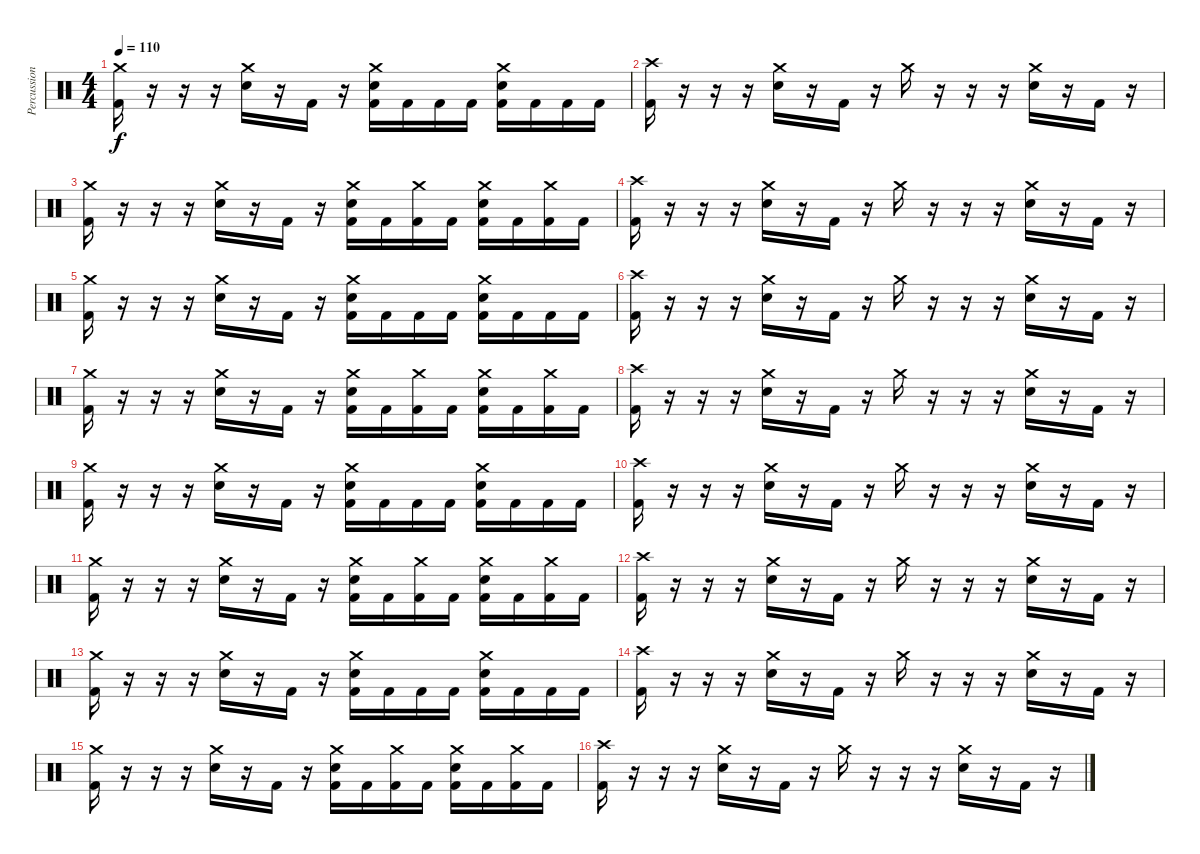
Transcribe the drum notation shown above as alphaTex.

\track ("Percussion" "Percussion") {instrument percussion}
\staff {score}
\articulation defaults
\ts (4 4)
\tempo 110
\clef neutral
\ks c
("Crash medium (hit)" "Kick (hit) 2").16{dy f} r.16 r.16 r.16 ("Crash medium (hit)" "Electric Snare (hit)").16 r.16 "Kick (hit) 2".16 r.16 ("Crash medium (hit)" "Electric Snare (hit)" "Kick (hit) 2").16 "Kick (hit) 2".16 "Kick (hit) 2".16 "Kick (hit) 2".16 ("Crash medium (hit)" "Electric Snare (hit)" "Kick (hit) 2").16 "Kick (hit) 2".16 "Kick (hit) 2".16 "Kick (hit) 2".16 |
("Crash high (hit)" "Kick (hit) 2").16 r.16 r.16 r.16 ("Crash medium (hit)" "Electric Snare (hit)").16 r.16 "Kick (hit) 2".16 r.16 "Crash medium (hit)".16 r.16 r.16 r.16 ("Crash medium (hit)" "Electric Snare (hit)").16 r.16 "Kick (hit) 2".16 r.16 |
("Crash medium (hit)" "Kick (hit) 2").16 r.16 r.16 r.16 ("Crash medium (hit)" "Electric Snare (hit)").16 r.16 "Kick (hit) 2".16 r.16 ("Crash medium (hit)" "Electric Snare (hit)" "Kick (hit) 2").16 "Kick (hit) 2".16 ("Crash medium (hit)" "Kick (hit) 2").16 "Kick (hit) 2".16 ("Crash medium (hit)" "Electric Snare (hit)" "Kick (hit) 2").16 "Kick (hit) 2".16 ("Crash medium (hit)" "Kick (hit) 2").16 "Kick (hit) 2".16 |
("Crash high (hit)" "Kick (hit) 2").16 r.16 r.16 r.16 ("Crash medium (hit)" "Electric Snare (hit)").16 r.16 "Kick (hit) 2".16 r.16 "Crash medium (hit)".16 r.16 r.16 r.16 ("Crash medium (hit)" "Electric Snare (hit)").16 r.16 "Kick (hit) 2".16 r.16 |
("Crash medium (hit)" "Kick (hit) 2").16 r.16 r.16 r.16 ("Crash medium (hit)" "Electric Snare (hit)").16 r.16 "Kick (hit) 2".16 r.16 ("Crash medium (hit)" "Electric Snare (hit)" "Kick (hit) 2").16 "Kick (hit) 2".16 "Kick (hit) 2".16 "Kick (hit) 2".16 ("Crash medium (hit)" "Electric Snare (hit)" "Kick (hit) 2").16 "Kick (hit) 2".16 "Kick (hit) 2".16 "Kick (hit) 2".16 |
("Crash high (hit)" "Kick (hit) 2").16 r.16 r.16 r.16 ("Crash medium (hit)" "Electric Snare (hit)").16 r.16 "Kick (hit) 2".16 r.16 "Crash medium (hit)".16 r.16 r.16 r.16 ("Crash medium (hit)" "Electric Snare (hit)").16 r.16 "Kick (hit) 2".16 r.16 |
("Crash medium (hit)" "Kick (hit) 2").16 r.16 r.16 r.16 ("Crash medium (hit)" "Electric Snare (hit)").16 r.16 "Kick (hit) 2".16 r.16 ("Crash medium (hit)" "Electric Snare (hit)" "Kick (hit) 2").16 "Kick (hit) 2".16 ("Crash medium (hit)" "Kick (hit) 2").16 "Kick (hit) 2".16 ("Crash medium (hit)" "Electric Snare (hit)" "Kick (hit) 2").16 "Kick (hit) 2".16 ("Crash medium (hit)" "Kick (hit) 2").16 "Kick (hit) 2".16 |
("Crash high (hit)" "Kick (hit) 2").16 r.16 r.16 r.16 ("Crash medium (hit)" "Electric Snare (hit)").16 r.16 "Kick (hit) 2".16 r.16 "Crash medium (hit)".16 r.16 r.16 r.16 ("Crash medium (hit)" "Electric Snare (hit)").16 r.16 "Kick (hit) 2".16 r.16 |
("Crash medium (hit)" "Kick (hit) 2").16 r.16 r.16 r.16 ("Crash medium (hit)" "Electric Snare (hit)").16 r.16 "Kick (hit) 2".16 r.16 ("Crash medium (hit)" "Electric Snare (hit)" "Kick (hit) 2").16 "Kick (hit) 2".16 "Kick (hit) 2".16 "Kick (hit) 2".16 ("Crash medium (hit)" "Electric Snare (hit)" "Kick (hit) 2").16 "Kick (hit) 2".16 "Kick (hit) 2".16 "Kick (hit) 2".16 |
("Crash high (hit)" "Kick (hit) 2").16 r.16 r.16 r.16 ("Crash medium (hit)" "Electric Snare (hit)").16 r.16 "Kick (hit) 2".16 r.16 "Crash medium (hit)".16 r.16 r.16 r.16 ("Crash medium (hit)" "Electric Snare (hit)").16 r.16 "Kick (hit) 2".16 r.16 |
("Crash medium (hit)" "Kick (hit) 2").16 r.16 r.16 r.16 ("Crash medium (hit)" "Electric Snare (hit)").16 r.16 "Kick (hit) 2".16 r.16 ("Crash medium (hit)" "Electric Snare (hit)" "Kick (hit) 2").16 "Kick (hit) 2".16 ("Crash medium (hit)" "Kick (hit) 2").16 "Kick (hit) 2".16 ("Crash medium (hit)" "Electric Snare (hit)" "Kick (hit) 2").16 "Kick (hit) 2".16 ("Crash medium (hit)" "Kick (hit) 2").16 "Kick (hit) 2".16 |
("Crash high (hit)" "Kick (hit) 2").16 r.16 r.16 r.16 ("Crash medium (hit)" "Electric Snare (hit)").16 r.16 "Kick (hit) 2".16 r.16 "Crash medium (hit)".16 r.16 r.16 r.16 ("Crash medium (hit)" "Electric Snare (hit)").16 r.16 "Kick (hit) 2".16 r.16 |
("Crash medium (hit)" "Kick (hit) 2").16 r.16 r.16 r.16 ("Crash medium (hit)" "Electric Snare (hit)").16 r.16 "Kick (hit) 2".16 r.16 ("Crash medium (hit)" "Electric Snare (hit)" "Kick (hit) 2").16 "Kick (hit) 2".16 "Kick (hit) 2".16 "Kick (hit) 2".16 ("Crash medium (hit)" "Electric Snare (hit)" "Kick (hit) 2").16 "Kick (hit) 2".16 "Kick (hit) 2".16 "Kick (hit) 2".16 |
("Crash high (hit)" "Kick (hit) 2").16 r.16 r.16 r.16 ("Crash medium (hit)" "Electric Snare (hit)").16 r.16 "Kick (hit) 2".16 r.16 "Crash medium (hit)".16 r.16 r.16 r.16 ("Crash medium (hit)" "Electric Snare (hit)").16 r.16 "Kick (hit) 2".16 r.16 |
("Crash medium (hit)" "Kick (hit) 2").16 r.16 r.16 r.16 ("Crash medium (hit)" "Electric Snare (hit)").16 r.16 "Kick (hit) 2".16 r.16 ("Crash medium (hit)" "Electric Snare (hit)" "Kick (hit) 2").16 "Kick (hit) 2".16 ("Crash medium (hit)" "Kick (hit) 2").16 "Kick (hit) 2".16 ("Crash medium (hit)" "Electric Snare (hit)" "Kick (hit) 2").16 "Kick (hit) 2".16 ("Crash medium (hit)" "Kick (hit) 2").16 "Kick (hit) 2".16 |
("Crash high (hit)" "Kick (hit) 2").16 r.16 r.16 r.16 ("Crash medium (hit)" "Electric Snare (hit)").16 r.16 "Kick (hit) 2".16 r.16 "Crash medium (hit)".16 r.16 r.16 r.16 ("Crash medium (hit)" "Electric Snare (hit)").16 r.16 "Kick (hit) 2".16 r.16
